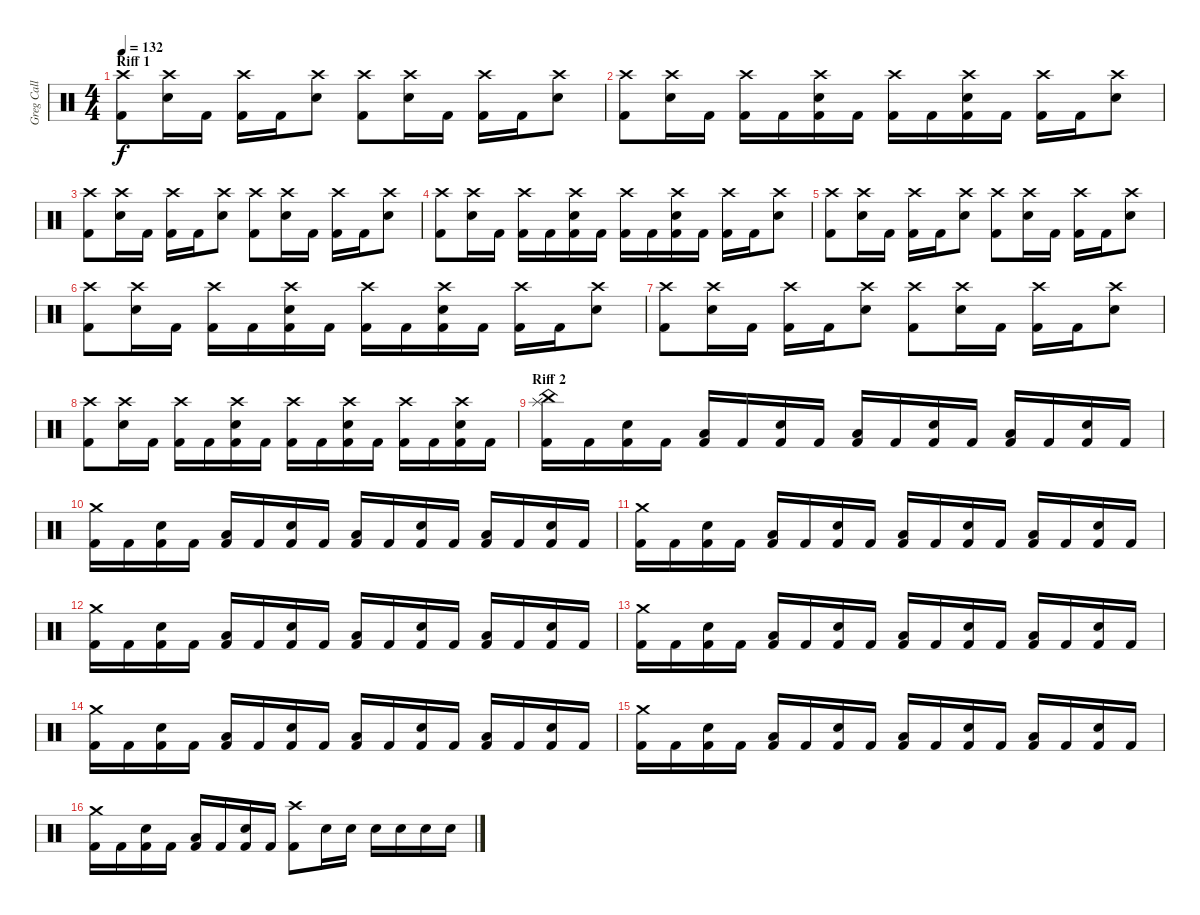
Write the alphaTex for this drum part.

\track ("Greg Call >>Drums" "Greg Call ") {instrument percussion}
\staff {score}
\articulation defaults
\ts (4 4)
\section ("" "Riff 1")
\tempo 132
\clef neutral
\ks c
("Crash high (hit)" "Kick (hit) 2").8{dy f} ("Crash high (hit)" "Snare (hit) 2").16 "Kick (hit) 2".16 ("Crash high (hit)" "Kick (hit) 2").16 "Kick (hit) 2".16 ("Crash high (hit)" "Snare (hit) 2").8 ("Crash high (hit)" "Kick (hit) 2").8 ("Crash high (hit)" "Snare (hit) 2").16 "Kick (hit) 2".16 ("Crash high (hit)" "Kick (hit) 2").16 "Kick (hit) 2".16 ("Crash high (hit)" "Snare (hit) 2").8 |
("Crash high (hit)" "Kick (hit) 2").8 ("Crash high (hit)" "Snare (hit) 2").16 "Kick (hit) 2".16 ("Crash high (hit)" "Kick (hit) 2").16 "Kick (hit) 2".16 ("Crash high (hit)" "Snare (hit) 2" "Kick (hit) 2").16 "Kick (hit) 2".16 ("Crash high (hit)" "Kick (hit) 2").16 "Kick (hit) 2".16 ("Crash high (hit)" "Snare (hit) 2" "Kick (hit) 2").16 "Kick (hit) 2".16 ("Crash high (hit)" "Kick (hit) 2").16 "Kick (hit) 2".16 ("Crash high (hit)" "Snare (hit) 2").8 |
("Crash high (hit)" "Kick (hit) 2").8 ("Crash high (hit)" "Snare (hit) 2").16 "Kick (hit) 2".16 ("Crash high (hit)" "Kick (hit) 2").16 "Kick (hit) 2".16 ("Crash high (hit)" "Snare (hit) 2").8 ("Crash high (hit)" "Kick (hit) 2").8 ("Crash high (hit)" "Snare (hit) 2").16 "Kick (hit) 2".16 ("Crash high (hit)" "Kick (hit) 2").16 "Kick (hit) 2".16 ("Crash high (hit)" "Snare (hit) 2").8 |
("Crash high (hit)" "Kick (hit) 2").8 ("Crash high (hit)" "Snare (hit) 2").16 "Kick (hit) 2".16 ("Crash high (hit)" "Kick (hit) 2").16 "Kick (hit) 2".16 ("Crash high (hit)" "Snare (hit) 2" "Kick (hit) 2").16 "Kick (hit) 2".16 ("Crash high (hit)" "Kick (hit) 2").16 "Kick (hit) 2".16 ("Crash high (hit)" "Snare (hit) 2" "Kick (hit) 2").16 "Kick (hit) 2".16 ("Crash high (hit)" "Kick (hit) 2").16 "Kick (hit) 2".16 ("Crash high (hit)" "Snare (hit) 2").8 |
("Crash high (hit)" "Kick (hit) 2").8 ("Crash high (hit)" "Snare (hit) 2").16 "Kick (hit) 2".16 ("Crash high (hit)" "Kick (hit) 2").16 "Kick (hit) 2".16 ("Crash high (hit)" "Snare (hit) 2").8 ("Crash high (hit)" "Kick (hit) 2").8 ("Crash high (hit)" "Snare (hit) 2").16 "Kick (hit) 2".16 ("Crash high (hit)" "Kick (hit) 2").16 "Kick (hit) 2".16 ("Crash high (hit)" "Snare (hit) 2").8 |
("Crash high (hit)" "Kick (hit) 2").8 ("Crash high (hit)" "Snare (hit) 2").16 "Kick (hit) 2".16 ("Crash high (hit)" "Kick (hit) 2").16 "Kick (hit) 2".16 ("Crash high (hit)" "Snare (hit) 2" "Kick (hit) 2").16 "Kick (hit) 2".16 ("Crash high (hit)" "Kick (hit) 2").16 "Kick (hit) 2".16 ("Crash high (hit)" "Snare (hit) 2" "Kick (hit) 2").16 "Kick (hit) 2".16 ("Crash high (hit)" "Kick (hit) 2").16 "Kick (hit) 2".16 ("Crash high (hit)" "Snare (hit) 2").8 |
("Crash high (hit)" "Kick (hit) 2").8 ("Crash high (hit)" "Snare (hit) 2").16 "Kick (hit) 2".16 ("Crash high (hit)" "Kick (hit) 2").16 "Kick (hit) 2".16 ("Crash high (hit)" "Snare (hit) 2").8 ("Crash high (hit)" "Kick (hit) 2").8 ("Crash high (hit)" "Snare (hit) 2").16 "Kick (hit) 2".16 ("Crash high (hit)" "Kick (hit) 2").16 "Kick (hit) 2".16 ("Crash high (hit)" "Snare (hit) 2").8 |
("Crash high (hit)" "Kick (hit) 2").8 ("Crash high (hit)" "Snare (hit) 2").16 "Kick (hit) 2".16 ("Crash high (hit)" "Kick (hit) 2").16 "Kick (hit) 2".16 ("Crash high (hit)" "Snare (hit) 2" "Kick (hit) 2").16 "Kick (hit) 2".16 ("Crash high (hit)" "Kick (hit) 2").16 "Kick (hit) 2".16 ("Crash high (hit)" "Snare (hit) 2" "Kick (hit) 2").16 "Kick (hit) 2".16 ("Crash high (hit)" "Kick (hit) 2").16 "Kick (hit) 2".16 ("Crash high (hit)" "Snare (hit) 2" "Kick (hit) 2").16 "Kick (hit) 2".16 |
\section ("" "Riff 2")
("Splash (hit)" "China (hit)" "Kick (hit) 2").16 "Kick (hit) 2".16 ("Snare (hit) 2" "Kick (hit) 2").16 "Kick (hit) 2".16 ("Low Floor Tom (hit)" "Kick (hit) 2").16 "Kick (hit) 2".16 ("Snare (hit) 2" "Kick (hit) 2").16 "Kick (hit) 2".16 ("Low Floor Tom (hit)" "Kick (hit) 2").16 "Kick (hit) 2".16 ("Snare (hit) 2" "Kick (hit) 2").16 "Kick (hit) 2".16 ("Low Floor Tom (hit)" "Kick (hit) 2").16 "Kick (hit) 2".16 ("Snare (hit) 2" "Kick (hit) 2").16 "Kick (hit) 2".16 |
("Crash medium (hit)" "Kick (hit) 2").16 "Kick (hit) 2".16 ("Snare (hit) 2" "Kick (hit) 2").16 "Kick (hit) 2".16 ("Low Floor Tom (hit)" "Kick (hit) 2").16 "Kick (hit) 2".16 ("Snare (hit) 2" "Kick (hit) 2").16 "Kick (hit) 2".16 ("Low Floor Tom (hit)" "Kick (hit) 2").16 "Kick (hit) 2".16 ("Snare (hit) 2" "Kick (hit) 2").16 "Kick (hit) 2".16 ("Low Floor Tom (hit)" "Kick (hit) 2").16 "Kick (hit) 2".16 ("Snare (hit) 2" "Kick (hit) 2").16 "Kick (hit) 2".16 |
("Crash medium (hit)" "Kick (hit) 2").16 "Kick (hit) 2".16 ("Snare (hit) 2" "Kick (hit) 2").16 "Kick (hit) 2".16 ("Low Floor Tom (hit)" "Kick (hit) 2").16 "Kick (hit) 2".16 ("Snare (hit) 2" "Kick (hit) 2").16 "Kick (hit) 2".16 ("Low Floor Tom (hit)" "Kick (hit) 2").16 "Kick (hit) 2".16 ("Snare (hit) 2" "Kick (hit) 2").16 "Kick (hit) 2".16 ("Low Floor Tom (hit)" "Kick (hit) 2").16 "Kick (hit) 2".16 ("Snare (hit) 2" "Kick (hit) 2").16 "Kick (hit) 2".16 |
("Crash medium (hit)" "Kick (hit) 2").16 "Kick (hit) 2".16 ("Snare (hit) 2" "Kick (hit) 2").16 "Kick (hit) 2".16 ("Low Floor Tom (hit)" "Kick (hit) 2").16 "Kick (hit) 2".16 ("Snare (hit) 2" "Kick (hit) 2").16 "Kick (hit) 2".16 ("Low Floor Tom (hit)" "Kick (hit) 2").16 "Kick (hit) 2".16 ("Snare (hit) 2" "Kick (hit) 2").16 "Kick (hit) 2".16 ("Low Floor Tom (hit)" "Kick (hit) 2").16 "Kick (hit) 2".16 ("Snare (hit) 2" "Kick (hit) 2").16 "Kick (hit) 2".16 |
("Crash medium (hit)" "Kick (hit) 2").16 "Kick (hit) 2".16 ("Snare (hit) 2" "Kick (hit) 2").16 "Kick (hit) 2".16 ("Low Floor Tom (hit)" "Kick (hit) 2").16 "Kick (hit) 2".16 ("Snare (hit) 2" "Kick (hit) 2").16 "Kick (hit) 2".16 ("Low Floor Tom (hit)" "Kick (hit) 2").16 "Kick (hit) 2".16 ("Snare (hit) 2" "Kick (hit) 2").16 "Kick (hit) 2".16 ("Low Floor Tom (hit)" "Kick (hit) 2").16 "Kick (hit) 2".16 ("Snare (hit) 2" "Kick (hit) 2").16 "Kick (hit) 2".16 |
("Crash medium (hit)" "Kick (hit) 2").16 "Kick (hit) 2".16 ("Snare (hit) 2" "Kick (hit) 2").16 "Kick (hit) 2".16 ("Low Floor Tom (hit)" "Kick (hit) 2").16 "Kick (hit) 2".16 ("Snare (hit) 2" "Kick (hit) 2").16 "Kick (hit) 2".16 ("Low Floor Tom (hit)" "Kick (hit) 2").16 "Kick (hit) 2".16 ("Snare (hit) 2" "Kick (hit) 2").16 "Kick (hit) 2".16 ("Low Floor Tom (hit)" "Kick (hit) 2").16 "Kick (hit) 2".16 ("Snare (hit) 2" "Kick (hit) 2").16 "Kick (hit) 2".16 |
("Crash medium (hit)" "Kick (hit) 2").16 "Kick (hit) 2".16 ("Snare (hit) 2" "Kick (hit) 2").16 "Kick (hit) 2".16 ("Low Floor Tom (hit)" "Kick (hit) 2").16 "Kick (hit) 2".16 ("Snare (hit) 2" "Kick (hit) 2").16 "Kick (hit) 2".16 ("Low Floor Tom (hit)" "Kick (hit) 2").16 "Kick (hit) 2".16 ("Snare (hit) 2" "Kick (hit) 2").16 "Kick (hit) 2".16 ("Low Floor Tom (hit)" "Kick (hit) 2").16 "Kick (hit) 2".16 ("Snare (hit) 2" "Kick (hit) 2").16 "Kick (hit) 2".16 |
("Crash medium (hit)" "Kick (hit) 2").16 "Kick (hit) 2".16 ("Snare (hit) 2" "Kick (hit) 2").16 "Kick (hit) 2".16 ("Low Floor Tom (hit)" "Kick (hit) 2").16 "Kick (hit) 2".16 ("Snare (hit) 2" "Kick (hit) 2").16 "Kick (hit) 2".16 ("Crash high (hit)" "Kick (hit) 2").8 "Snare (hit) 2".16 "Snare (hit) 2".16 "Snare (hit) 2".16 "Snare (hit) 2".16 "Snare (hit) 2".16 "Snare (hit) 2".16
